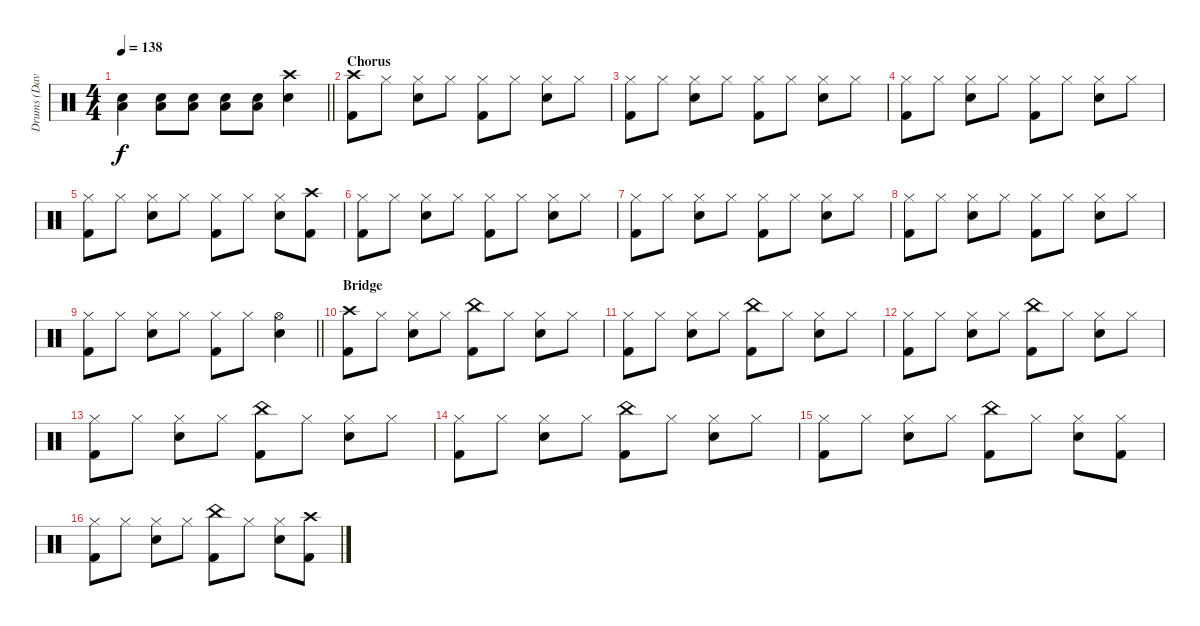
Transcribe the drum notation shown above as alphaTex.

\track ("Drums (Dave Holland)" "Drums (Dav") {instrument percussion}
\staff {score}
\articulation defaults
\ts (4 4)
\tempo 138
\clef neutral
\barLineRight lightlight
\ks c
("Low Floor Tom (hit)" "Snare (hit) 2").4{dy f} ("Low Floor Tom (hit)" "Snare (hit) 2").8 ("Low Floor Tom (hit)" "Snare (hit) 2").8 ("Low Floor Tom (hit)" "Snare (hit) 2").8 ("Low Floor Tom (hit)" "Snare (hit) 2").8 ("Crash high (hit)" "Snare (hit) 2").4 |
\section ("" "Chorus")
("Crash high (hit)" "Kick (hit) 2").8 "Hi-Hat (closed)".8 ("Hi-Hat (closed)" "Snare (hit) 2").8 "Hi-Hat (closed)".8 ("Hi-Hat (closed)" "Kick (hit) 2").8 "Hi-Hat (closed)".8 ("Hi-Hat (closed)" "Snare (hit) 2").8 "Hi-Hat (closed)".8 |
("Hi-Hat (closed)" "Kick (hit) 2").8 "Hi-Hat (closed)".8 ("Hi-Hat (closed)" "Snare (hit) 2").8 "Hi-Hat (closed)".8 ("Hi-Hat (closed)" "Kick (hit) 2").8 "Hi-Hat (closed)".8 ("Hi-Hat (closed)" "Snare (hit) 2").8 "Hi-Hat (closed)".8 |
("Hi-Hat (closed)" "Kick (hit) 2").8 "Hi-Hat (closed)".8 ("Hi-Hat (closed)" "Snare (hit) 2").8 "Hi-Hat (closed)".8 ("Hi-Hat (closed)" "Kick (hit) 2").8 "Hi-Hat (closed)".8 ("Hi-Hat (closed)" "Snare (hit) 2").8 "Hi-Hat (closed)".8 |
("Hi-Hat (closed)" "Kick (hit) 2").8 "Hi-Hat (closed)".8 ("Hi-Hat (closed)" "Snare (hit) 2").8 "Hi-Hat (closed)".8 ("Hi-Hat (closed)" "Kick (hit) 2").8 "Hi-Hat (closed)".8 ("Hi-Hat (closed)" "Snare (hit) 2").8 ("Crash high (hit)" "Kick (hit) 2").8 |
("Hi-Hat (closed)" "Kick (hit) 2").8 "Hi-Hat (closed)".8 ("Hi-Hat (closed)" "Snare (hit) 2").8 "Hi-Hat (closed)".8 ("Hi-Hat (closed)" "Kick (hit) 2").8 "Hi-Hat (closed)".8 ("Hi-Hat (closed)" "Snare (hit) 2").8 "Hi-Hat (closed)".8 |
("Hi-Hat (closed)" "Kick (hit) 2").8 "Hi-Hat (closed)".8 ("Hi-Hat (closed)" "Snare (hit) 2").8 "Hi-Hat (closed)".8 ("Hi-Hat (closed)" "Kick (hit) 2").8 "Hi-Hat (closed)".8 ("Hi-Hat (closed)" "Snare (hit) 2").8 "Hi-Hat (closed)".8 |
("Hi-Hat (closed)" "Kick (hit) 2").8 "Hi-Hat (closed)".8 ("Hi-Hat (closed)" "Snare (hit) 2").8 "Hi-Hat (closed)".8 ("Hi-Hat (closed)" "Kick (hit) 2").8 "Hi-Hat (closed)".8 ("Hi-Hat (closed)" "Snare (hit) 2").8 "Hi-Hat (closed)".8 |
\barLineRight lightlight
("Hi-Hat (closed)" "Kick (hit) 2").8 "Hi-Hat (closed)".8 ("Hi-Hat (closed)" "Snare (hit) 2").8 "Hi-Hat (closed)".8 ("Hi-Hat (closed)" "Kick (hit) 2").8 "Hi-Hat (closed)".8 ("Hi-Hat (open)" "Snare (hit) 2").4 |
\section ("" "Bridge")
("Crash high (hit)" "Kick (hit) 2").8 "Hi-Hat (closed)".8 ("Hi-Hat (closed)" "Snare (hit) 2").8 "Hi-Hat (closed)".8 ("China (hit)" "Kick (hit) 2").8 "Hi-Hat (closed)".8 ("Hi-Hat (closed)" "Snare (hit) 2").8 "Hi-Hat (closed)".8 |
("Hi-Hat (closed)" "Kick (hit) 2").8 "Hi-Hat (closed)".8 ("Hi-Hat (closed)" "Snare (hit) 2").8 "Hi-Hat (closed)".8 ("China (hit)" "Kick (hit) 2").8 "Hi-Hat (closed)".8 ("Hi-Hat (closed)" "Snare (hit) 2").8 "Hi-Hat (closed)".8 |
("Hi-Hat (closed)" "Kick (hit) 2").8 "Hi-Hat (closed)".8 ("Hi-Hat (closed)" "Snare (hit) 2").8 "Hi-Hat (closed)".8 ("China (hit)" "Kick (hit) 2").8 "Hi-Hat (closed)".8 ("Hi-Hat (closed)" "Snare (hit) 2").8 "Hi-Hat (closed)".8 |
("Hi-Hat (closed)" "Kick (hit) 2").8 "Hi-Hat (closed)".8 ("Hi-Hat (closed)" "Snare (hit) 2").8 "Hi-Hat (closed)".8 ("China (hit)" "Kick (hit) 2").8 "Hi-Hat (closed)".8 ("Hi-Hat (closed)" "Snare (hit) 2").8 "Hi-Hat (closed)".8 |
("Hi-Hat (closed)" "Kick (hit) 2").8 "Hi-Hat (closed)".8 ("Hi-Hat (closed)" "Snare (hit) 2").8 "Hi-Hat (closed)".8 ("China (hit)" "Kick (hit) 2").8 "Hi-Hat (closed)".8 ("Hi-Hat (closed)" "Snare (hit) 2").8 "Hi-Hat (closed)".8 |
("Hi-Hat (closed)" "Kick (hit) 2").8 "Hi-Hat (closed)".8 ("Hi-Hat (closed)" "Snare (hit) 2").8 "Hi-Hat (closed)".8 ("China (hit)" "Kick (hit) 2").8 "Hi-Hat (closed)".8 ("Hi-Hat (closed)" "Snare (hit) 2").8 ("Hi-Hat (closed)" "Kick (hit) 2").8 |
("Hi-Hat (closed)" "Kick (hit) 2").8 "Hi-Hat (closed)".8 ("Hi-Hat (closed)" "Snare (hit) 2").8 "Hi-Hat (closed)".8 ("China (hit)" "Kick (hit) 2").8 "Hi-Hat (closed)".8 ("Hi-Hat (closed)" "Snare (hit) 2").8 ("Crash high (hit)" "Kick (hit) 2").8
